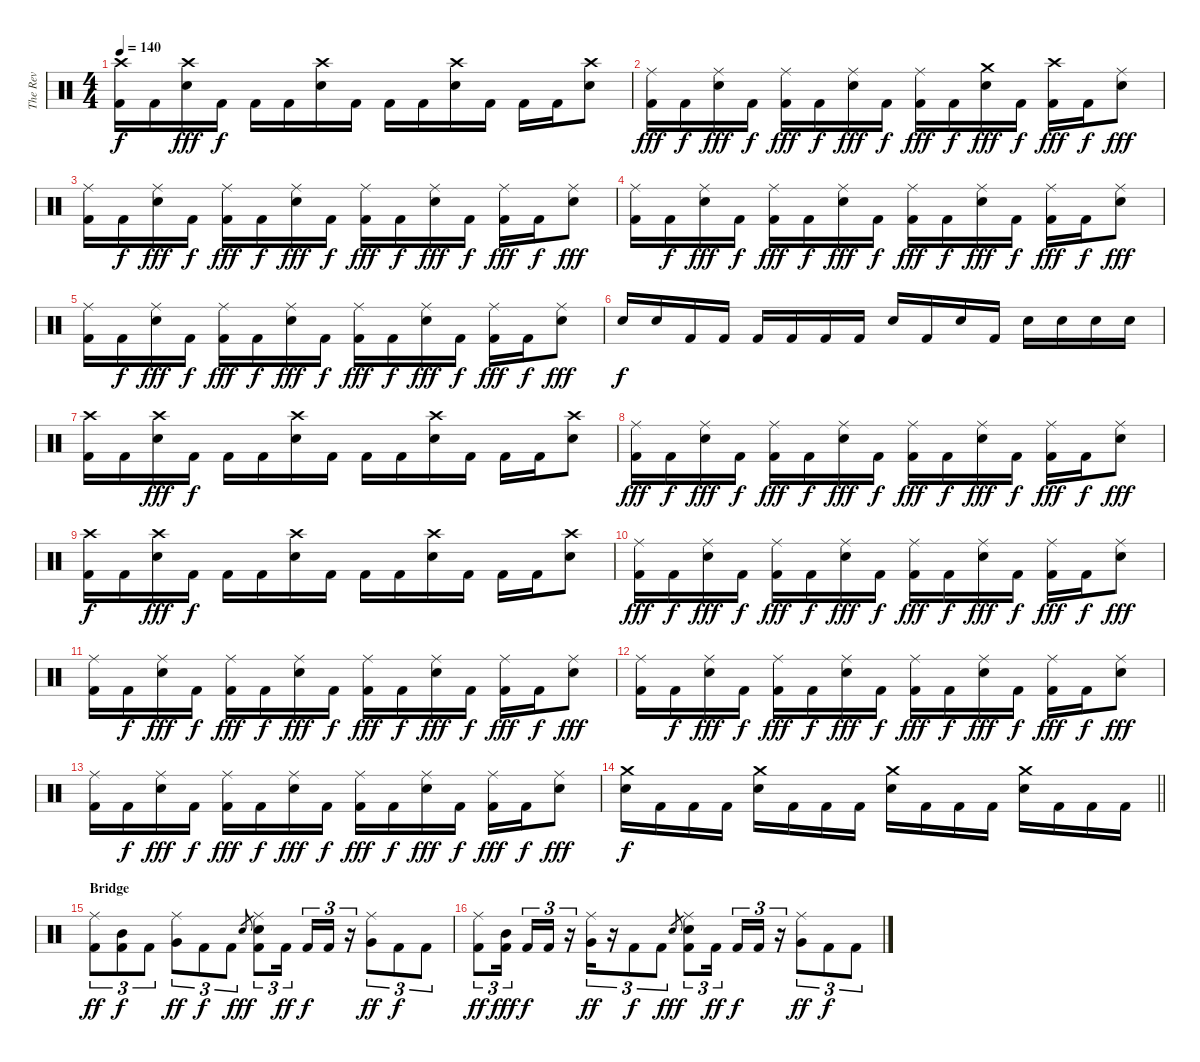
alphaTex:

\track ("The Rev" "The Rev") {instrument percussion}
\staff {score}
\articulation defaults
\ts (4 4)
\tempo 140
\clef neutral
\ks c
("Crash high (hit)" "Kick (hit) 2").16{dy f} "Kick (hit) 2".16 ("Crash high (hit)" "Snare (hit) 2").16{dy fff} "Kick (hit) 2".16{dy f} "Kick (hit) 2".16 "Kick (hit) 2".16 ("Crash high (hit)" "Snare (hit) 2").16 "Kick (hit) 2".16 "Kick (hit) 2".16 "Kick (hit) 2".16 ("Crash high (hit)" "Snare (hit) 2").16 "Kick (hit) 2".16 "Kick (hit) 2".16 "Kick (hit) 2".16 ("Crash high (hit)" "Snare (hit) 2").8 |
("Ride (middle)" "Kick (hit) 2").16{dy fff} "Kick (hit) 2".16{dy f} ("Ride (middle)" "Snare (hit) 2").16{dy fff} "Kick (hit) 2".16{dy f} ("Ride (middle)" "Kick (hit) 2").16{dy fff} "Kick (hit) 2".16{dy f} ("Ride (middle)" "Snare (hit) 2").16{dy fff} "Kick (hit) 2".16{dy f} ("Ride (middle)" "Kick (hit) 2").16{dy fff} "Kick (hit) 2".16{dy f} ("Crash medium (hit)" "Snare (hit) 2").16{dy fff} "Kick (hit) 2".16{dy f} ("Crash high (hit)" "Kick (hit) 2").16{dy fff} "Kick (hit) 2".16{dy f} ("Ride (middle)" "Snare (hit) 2").8{dy fff} |
("Ride (middle)" "Kick (hit) 2").16 "Kick (hit) 2".16{dy f} ("Ride (middle)" "Snare (hit) 2").16{dy fff} "Kick (hit) 2".16{dy f} ("Ride (middle)" "Kick (hit) 2").16{dy fff} "Kick (hit) 2".16{dy f} ("Ride (middle)" "Snare (hit) 2").16{dy fff} "Kick (hit) 2".16{dy f} ("Ride (middle)" "Kick (hit) 2").16{dy fff} "Kick (hit) 2".16{dy f} ("Ride (middle)" "Snare (hit) 2").16{dy fff} "Kick (hit) 2".16{dy f} ("Ride (middle)" "Kick (hit) 2").16{dy fff} "Kick (hit) 2".16{dy f} ("Ride (middle)" "Snare (hit) 2").8{dy fff} |
("Ride (middle)" "Kick (hit) 2").16 "Kick (hit) 2".16{dy f} ("Ride (middle)" "Snare (hit) 2").16{dy fff} "Kick (hit) 2".16{dy f} ("Ride (middle)" "Kick (hit) 2").16{dy fff} "Kick (hit) 2".16{dy f} ("Ride (middle)" "Snare (hit) 2").16{dy fff} "Kick (hit) 2".16{dy f} ("Ride (middle)" "Kick (hit) 2").16{dy fff} "Kick (hit) 2".16{dy f} ("Ride (middle)" "Snare (hit) 2").16{dy fff} "Kick (hit) 2".16{dy f} ("Ride (middle)" "Kick (hit) 2").16{dy fff} "Kick (hit) 2".16{dy f} ("Ride (middle)" "Snare (hit) 2").8{dy fff} |
("Ride (middle)" "Kick (hit) 2").16 "Kick (hit) 2".16{dy f} ("Ride (middle)" "Snare (hit) 2").16{dy fff} "Kick (hit) 2".16{dy f} ("Ride (middle)" "Kick (hit) 2").16{dy fff} "Kick (hit) 2".16{dy f} ("Ride (middle)" "Snare (hit) 2").16{dy fff} "Kick (hit) 2".16{dy f} ("Ride (middle)" "Kick (hit) 2").16{dy fff} "Kick (hit) 2".16{dy f} ("Ride (middle)" "Snare (hit) 2").16{dy fff} "Kick (hit) 2".16{dy f} ("Ride (middle)" "Kick (hit) 2").16{dy fff} "Kick (hit) 2".16{dy f} ("Ride (middle)" "Snare (hit) 2").8{dy fff} |
"Snare (hit) 2".16{dy f} "Snare (hit) 2".16 "Kick (hit) 2".16 "Kick (hit) 2".16 "Kick (hit) 2".16 "Kick (hit) 2".16 "Kick (hit) 2".16 "Kick (hit) 2".16 "Snare (hit) 2".16 "Kick (hit) 2".16 "Snare (hit) 2".16 "Kick (hit) 2".16 "Snare (hit) 2".16 "Snare (hit) 2".16 "Snare (hit) 2".16 "Snare (hit) 2".16 |
("Crash high (hit)" "Kick (hit) 2").16 "Kick (hit) 2".16 ("Crash high (hit)" "Snare (hit) 2").16{dy fff} "Kick (hit) 2".16{dy f} "Kick (hit) 2".16 "Kick (hit) 2".16 ("Crash high (hit)" "Snare (hit) 2").16 "Kick (hit) 2".16 "Kick (hit) 2".16 "Kick (hit) 2".16 ("Crash high (hit)" "Snare (hit) 2").16 "Kick (hit) 2".16 "Kick (hit) 2".16 "Kick (hit) 2".16 ("Crash high (hit)" "Snare (hit) 2").8 |
("Ride (middle)" "Kick (hit) 2").16{dy fff} "Kick (hit) 2".16{dy f} ("Ride (middle)" "Snare (hit) 2").16{dy fff} "Kick (hit) 2".16{dy f} ("Ride (middle)" "Kick (hit) 2").16{dy fff} "Kick (hit) 2".16{dy f} ("Ride (middle)" "Snare (hit) 2").16{dy fff} "Kick (hit) 2".16{dy f} ("Ride (middle)" "Kick (hit) 2").16{dy fff} "Kick (hit) 2".16{dy f} ("Ride (middle)" "Snare (hit) 2").16{dy fff} "Kick (hit) 2".16{dy f} ("Ride (middle)" "Kick (hit) 2").16{dy fff} "Kick (hit) 2".16{dy f} ("Ride (middle)" "Snare (hit) 2").8{dy fff} |
("Crash high (hit)" "Kick (hit) 2").16{dy f} "Kick (hit) 2".16 ("Crash high (hit)" "Snare (hit) 2").16{dy fff} "Kick (hit) 2".16{dy f} "Kick (hit) 2".16 "Kick (hit) 2".16 ("Crash high (hit)" "Snare (hit) 2").16 "Kick (hit) 2".16 "Kick (hit) 2".16 "Kick (hit) 2".16 ("Crash high (hit)" "Snare (hit) 2").16 "Kick (hit) 2".16 "Kick (hit) 2".16 "Kick (hit) 2".16 ("Crash high (hit)" "Snare (hit) 2").8 |
("Ride (middle)" "Kick (hit) 2").16{dy fff} "Kick (hit) 2".16{dy f} ("Ride (middle)" "Snare (hit) 2").16{dy fff} "Kick (hit) 2".16{dy f} ("Ride (middle)" "Kick (hit) 2").16{dy fff} "Kick (hit) 2".16{dy f} ("Ride (middle)" "Snare (hit) 2").16{dy fff} "Kick (hit) 2".16{dy f} ("Ride (middle)" "Kick (hit) 2").16{dy fff} "Kick (hit) 2".16{dy f} ("Ride (middle)" "Snare (hit) 2").16{dy fff} "Kick (hit) 2".16{dy f} ("Ride (middle)" "Kick (hit) 2").16{dy fff} "Kick (hit) 2".16{dy f} ("Ride (middle)" "Snare (hit) 2").8{dy fff} |
("Ride (middle)" "Kick (hit) 2").16 "Kick (hit) 2".16{dy f} ("Ride (middle)" "Snare (hit) 2").16{dy fff} "Kick (hit) 2".16{dy f} ("Ride (middle)" "Kick (hit) 2").16{dy fff} "Kick (hit) 2".16{dy f} ("Ride (middle)" "Snare (hit) 2").16{dy fff} "Kick (hit) 2".16{dy f} ("Ride (middle)" "Kick (hit) 2").16{dy fff} "Kick (hit) 2".16{dy f} ("Ride (middle)" "Snare (hit) 2").16{dy fff} "Kick (hit) 2".16{dy f} ("Ride (middle)" "Kick (hit) 2").16{dy fff} "Kick (hit) 2".16{dy f} ("Ride (middle)" "Snare (hit) 2").8{dy fff} |
("Ride (middle)" "Kick (hit) 2").16 "Kick (hit) 2".16{dy f} ("Ride (middle)" "Snare (hit) 2").16{dy fff} "Kick (hit) 2".16{dy f} ("Ride (middle)" "Kick (hit) 2").16{dy fff} "Kick (hit) 2".16{dy f} ("Ride (middle)" "Snare (hit) 2").16{dy fff} "Kick (hit) 2".16{dy f} ("Ride (middle)" "Kick (hit) 2").16{dy fff} "Kick (hit) 2".16{dy f} ("Ride (middle)" "Snare (hit) 2").16{dy fff} "Kick (hit) 2".16{dy f} ("Ride (middle)" "Kick (hit) 2").16{dy fff} "Kick (hit) 2".16{dy f} ("Ride (middle)" "Snare (hit) 2").8{dy fff} |
("Ride (middle)" "Kick (hit) 2").16 "Kick (hit) 2".16{dy f} ("Ride (middle)" "Snare (hit) 2").16{dy fff} "Kick (hit) 2".16{dy f} ("Ride (middle)" "Kick (hit) 2").16{dy fff} "Kick (hit) 2".16{dy f} ("Ride (middle)" "Snare (hit) 2").16{dy fff} "Kick (hit) 2".16{dy f} ("Ride (middle)" "Kick (hit) 2").16{dy fff} "Kick (hit) 2".16{dy f} ("Ride (middle)" "Snare (hit) 2").16{dy fff} "Kick (hit) 2".16{dy f} ("Ride (middle)" "Kick (hit) 2").16{dy fff} "Kick (hit) 2".16{dy f} ("Ride (middle)" "Snare (hit) 2").8{dy fff} |
\barLineRight lightlight
("Crash medium (hit)" "Snare (hit) 2").16{dy f} "Kick (hit) 2".16 "Kick (hit) 2".16 "Kick (hit) 2".16 ("Crash medium (hit)" "Snare (hit) 2").16 "Kick (hit) 2".16 "Kick (hit) 2".16 "Kick (hit) 2".16 ("Crash medium (hit)" "Snare (hit) 2").16 "Kick (hit) 2".16 "Kick (hit) 2".16 "Kick (hit) 2".16 ("Crash medium (hit)" "Snare (hit) 2").16 "Kick (hit) 2".16 "Kick (hit) 2".16 "Kick (hit) 2".16 |
\section ("" "Bridge")
("Ride (middle)" "Kick (hit) 2").8{tu (3 2) dy ff} ("Mid Tom (hit)" "Kick (hit) 2").8{tu (3 2) dy f} "Kick (hit) 2".8{tu (3 2)} ("Ride (middle)" "Very Low Tom (hit)").8{tu (3 2) dy ff} "Kick (hit) 2".8{tu (3 2) dy f} "Kick (hit) 2".8{tu (3 2)} "Snare (hit) 2".8{gr dy fff} ("Ride (middle)" "Snare (hit) 2" "Kick (hit) 2").8{tu (3 2)} "Kick (hit) 2".16{tu (3 2) dy ff beam splitsecondary} "Kick (hit) 2".16{tu (3 2) dy f} "Kick (hit) 2".16{tu (3 2)} r.16{tu (3 2)} ("Ride (middle)" "Very Low Tom (hit)").8{tu (3 2) dy ff} "Kick (hit) 2".8{tu (3 2) dy f} "Kick (hit) 2".8{tu (3 2)} |
("Ride (middle)" "Kick (hit) 2").8{tu (3 2) dy ff} ("Mid Tom (hit)" "Kick (hit) 2").16{tu (3 2) dy fff beam splitsecondary} "Kick (hit) 2".16{tu (3 2) dy f} "Kick (hit) 2".16{tu (3 2)} r.16{tu (3 2)} ("Ride (middle)" "Very Low Tom (hit)").16{tu (3 2) dy ff} r.16{tu (3 2)} "Kick (hit) 2".8{tu (3 2) dy f} "Kick (hit) 2".8{tu (3 2)} "Snare (hit) 2".8{gr dy fff} ("Ride (middle)" "Snare (hit) 2" "Kick (hit) 2").8{tu (3 2)} "Kick (hit) 2".16{tu (3 2) dy ff beam splitsecondary} "Kick (hit) 2".16{tu (3 2) dy f} "Kick (hit) 2".16{tu (3 2)} r.16{tu (3 2)} ("Ride (middle)" "Very Low Tom (hit)").8{tu (3 2) dy ff} "Kick (hit) 2".8{tu (3 2) dy f} "Kick (hit) 2".8{tu (3 2)}
